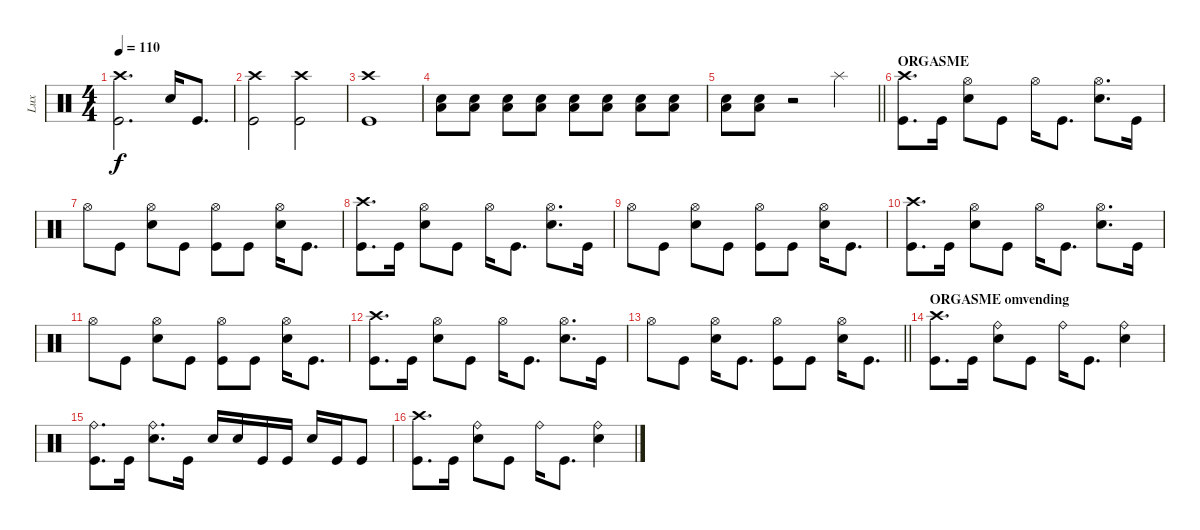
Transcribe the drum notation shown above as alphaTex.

\track ("Lux" "Lux") {instrument percussion}
\staff {score}
\articulation defaults
\ts (4 4)
\tempo 110
\clef neutral
\ks c
("Crash high (hit)" "Kick (hit)").2{d dy f} "Snare (hit) 2".16 "Kick (hit)".8{d} |
("Crash high (hit)" "Kick (hit)").2 ("Crash high (hit)" "Kick (hit)").2 |
("Crash high (hit)" "Kick (hit)").1 |
("Low Tom (hit)" "Snare (hit) 2").8 ("Low Tom (hit)" "Snare (hit) 2").8 ("Low Tom (hit)" "Snare (hit) 2").8 ("Low Tom (hit)" "Snare (hit) 2").8 ("Low Tom (hit)" "Snare (hit) 2").8 ("Low Tom (hit)" "Snare (hit) 2").8 ("Low Tom (hit)" "Snare (hit) 2").8 ("Low Tom (hit)" "Snare (hit) 2").8 |
\barLineRight lightlight
("Low Tom (hit)" "Snare (hit) 2").8 ("Low Tom (hit)" "Snare (hit) 2").8 r.2 "Splash (hit)".4 |
\section ("" "ORGASME")
("Crash high (hit)" "Kick (hit)").8{d} "Kick (hit)".16 ("Hi-Hat (open)" "Snare (hit) 2").8 "Kick (hit)".8 "Hi-Hat (open)".16 "Kick (hit)".8{d} ("Hi-Hat (open)" "Snare (hit) 2").8{d} "Kick (hit)".16 |
"Hi-Hat (open)".8 "Kick (hit)".8 ("Hi-Hat (open)" "Snare (hit) 2").8 "Kick (hit)".8 ("Hi-Hat (open)" "Kick (hit)").8 "Kick (hit)".8 ("Hi-Hat (open)" "Snare (hit) 2").16 "Kick (hit)".8{d} |
("Crash high (hit)" "Kick (hit)").8{d} "Kick (hit)".16 ("Hi-Hat (open)" "Snare (hit) 2").8 "Kick (hit)".8 "Hi-Hat (open)".16 "Kick (hit)".8{d} ("Hi-Hat (open)" "Snare (hit) 2").8{d} "Kick (hit)".16 |
"Hi-Hat (open)".8 "Kick (hit)".8 ("Hi-Hat (open)" "Snare (hit) 2").8 "Kick (hit)".8 ("Hi-Hat (open)" "Kick (hit)").8 "Kick (hit)".8 ("Hi-Hat (open)" "Snare (hit) 2").16 "Kick (hit)".8{d} |
("Crash high (hit)" "Kick (hit)").8{d} "Kick (hit)".16 ("Hi-Hat (open)" "Snare (hit) 2").8 "Kick (hit)".8 "Hi-Hat (open)".16 "Kick (hit)".8{d} ("Hi-Hat (open)" "Snare (hit) 2").8{d} "Kick (hit)".16 |
"Hi-Hat (open)".8 "Kick (hit)".8 ("Hi-Hat (open)" "Snare (hit) 2").8 "Kick (hit)".8 ("Hi-Hat (open)" "Kick (hit)").8 "Kick (hit)".8 ("Hi-Hat (open)" "Snare (hit) 2").16 "Kick (hit)".8{d} |
("Crash high (hit)" "Kick (hit)").8{d} "Kick (hit)".16 ("Hi-Hat (open)" "Snare (hit) 2").8 "Kick (hit)".8 "Hi-Hat (open)".16 "Kick (hit)".8{d} ("Hi-Hat (open)" "Snare (hit) 2").8{d} "Kick (hit)".16 |
\barLineRight lightlight "Hi-Hat (open)".8 "Kick (hit)".8
("Hi-Hat (open)" "Snare (hit) 2").16 "Kick (hit)".8{d} ("Hi-Hat (open)" "Kick (hit)").8 "Kick (hit)".8 ("Hi-Hat (open)" "Snare (hit) 2").16 "Kick (hit)".8{d} |
\section ("" "ORGASME omvending")
("Crash high (hit)" "Kick (hit)").8{d} "Kick (hit)".16 ("Ride (bell)" "Snare (hit) 2").8 "Kick (hit)".8 "Ride (bell)".16 "Kick (hit)".8{d} ("Ride (bell)" "Snare (hit) 2").4 |
("Ride (bell)" "Kick (hit)").8{d} "Kick (hit)".16 ("Ride (bell)" "Snare (hit) 2").8{d} "Kick (hit)".16 "Snare (hit) 2".16 "Snare (hit) 2".16 "Kick (hit)".16 "Kick (hit)".16 "Snare (hit) 2".16 "Kick (hit)".16 "Kick (hit)".8 |
("Crash high (hit)" "Kick (hit)").8{d} "Kick (hit)".16 ("Ride (bell)" "Snare (hit) 2").8 "Kick (hit)".8 "Ride (bell)".16 "Kick (hit)".8{d} ("Ride (bell)" "Snare (hit) 2").4
